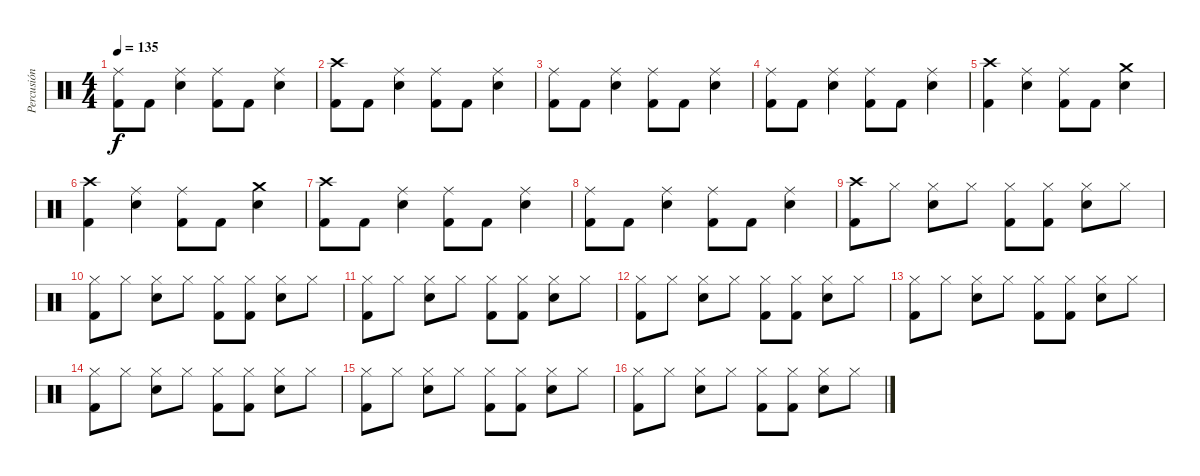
\track ("Percusión" "Percusión") {instrument percussion}
\staff {score}
\articulation defaults
\ts (4 4)
\tempo 135
\clef neutral
\ks c
("Ride (middle)" "Kick (hit) 2").8{dy f} "Kick (hit) 2".8 ("Ride (middle)" "Electric Snare (hit)").4 ("Ride (middle)" "Kick (hit) 2").8 "Kick (hit) 2".8 ("Ride (middle)" "Electric Snare (hit)").4 |
("Crash high (hit)" "Kick (hit) 2").8 "Kick (hit) 2".8 ("Ride (middle)" "Electric Snare (hit)").4 ("Ride (middle)" "Kick (hit) 2").8 "Kick (hit) 2".8 ("Ride (middle)" "Electric Snare (hit)").4 |
("Ride (middle)" "Kick (hit) 2").8 "Kick (hit) 2".8 ("Ride (middle)" "Electric Snare (hit)").4 ("Ride (middle)" "Kick (hit) 2").8 "Kick (hit) 2".8 ("Ride (middle)" "Electric Snare (hit)").4 |
("Ride (middle)" "Kick (hit) 2").8 "Kick (hit) 2".8 ("Ride (middle)" "Electric Snare (hit)").4 ("Ride (middle)" "Kick (hit) 2").8 "Kick (hit) 2".8 ("Ride (middle)" "Electric Snare (hit)").4 |
("Crash high (hit)" "Kick (hit) 2").4 ("Ride (middle)" "Electric Snare (hit)").4 ("Ride (middle)" "Kick (hit) 2").8 "Kick (hit) 2".8 ("Crash medium (hit)" "Electric Snare (hit)").4 |
("Crash high (hit)" "Kick (hit) 2").4 ("Ride (middle)" "Electric Snare (hit)").4 ("Ride (middle)" "Kick (hit) 2").8 "Kick (hit) 2".8 ("Crash medium (hit)" "Electric Snare (hit)").4 |
("Crash high (hit)" "Kick (hit) 2").8 "Kick (hit) 2".8 ("Ride (middle)" "Electric Snare (hit)").4 ("Ride (middle)" "Kick (hit) 2").8 "Kick (hit) 2".8 ("Ride (middle)" "Electric Snare (hit)").4 |
("Ride (middle)" "Kick (hit) 2").8 "Kick (hit) 2".8 ("Ride (middle)" "Electric Snare (hit)").4 ("Ride (middle)" "Kick (hit) 2").8 "Kick (hit) 2".8 ("Ride (middle)" "Electric Snare (hit)").4 |
("Crash high (hit)" "Kick (hit) 2").8 "Hi-Hat (closed)".8 ("Hi-Hat (closed)" "Electric Snare (hit)").8 "Hi-Hat (closed)".8 ("Hi-Hat (closed)" "Kick (hit) 2").8 ("Hi-Hat (closed)" "Kick (hit) 2").8 ("Hi-Hat (closed)" "Electric Snare (hit)").8 "Hi-Hat (closed)".8 |
("Hi-Hat (closed)" "Kick (hit) 2").8 "Hi-Hat (closed)".8 ("Hi-Hat (closed)" "Electric Snare (hit)").8 "Hi-Hat (closed)".8 ("Hi-Hat (closed)" "Kick (hit) 2").8 ("Hi-Hat (closed)" "Kick (hit) 2").8 ("Hi-Hat (closed)" "Electric Snare (hit)").8 "Hi-Hat (closed)".8 |
("Hi-Hat (closed)" "Kick (hit) 2").8 "Hi-Hat (closed)".8 ("Hi-Hat (closed)" "Electric Snare (hit)").8 "Hi-Hat (closed)".8 ("Hi-Hat (closed)" "Kick (hit) 2").8 ("Hi-Hat (closed)" "Kick (hit) 2").8 ("Hi-Hat (closed)" "Electric Snare (hit)").8 "Hi-Hat (closed)".8 |
("Hi-Hat (closed)" "Kick (hit) 2").8 "Hi-Hat (closed)".8 ("Hi-Hat (closed)" "Electric Snare (hit)").8 "Hi-Hat (closed)".8 ("Hi-Hat (closed)" "Kick (hit) 2").8 ("Hi-Hat (closed)" "Kick (hit) 2").8 ("Hi-Hat (closed)" "Electric Snare (hit)").8 "Hi-Hat (closed)".8 |
("Hi-Hat (closed)" "Kick (hit) 2").8 "Hi-Hat (closed)".8 ("Hi-Hat (closed)" "Electric Snare (hit)").8 "Hi-Hat (closed)".8 ("Hi-Hat (closed)" "Kick (hit) 2").8 ("Hi-Hat (closed)" "Kick (hit) 2").8 ("Hi-Hat (closed)" "Electric Snare (hit)").8 "Hi-Hat (closed)".8 |
("Hi-Hat (closed)" "Kick (hit) 2").8 "Hi-Hat (closed)".8 ("Hi-Hat (closed)" "Electric Snare (hit)").8 "Hi-Hat (closed)".8 ("Hi-Hat (closed)" "Kick (hit) 2").8 ("Hi-Hat (closed)" "Kick (hit) 2").8 ("Hi-Hat (closed)" "Electric Snare (hit)").8 "Hi-Hat (closed)".8 |
("Hi-Hat (closed)" "Kick (hit) 2").8 "Hi-Hat (closed)".8 ("Hi-Hat (closed)" "Electric Snare (hit)").8 "Hi-Hat (closed)".8 ("Hi-Hat (closed)" "Kick (hit) 2").8 ("Hi-Hat (closed)" "Kick (hit) 2").8 ("Hi-Hat (closed)" "Electric Snare (hit)").8 "Hi-Hat (closed)".8 |
("Hi-Hat (closed)" "Kick (hit) 2").8 "Hi-Hat (closed)".8 ("Hi-Hat (closed)" "Electric Snare (hit)").8 "Hi-Hat (closed)".8 ("Hi-Hat (closed)" "Kick (hit) 2").8 ("Hi-Hat (closed)" "Kick (hit) 2").8 ("Hi-Hat (closed)" "Electric Snare (hit)").8 "Hi-Hat (closed)".8
